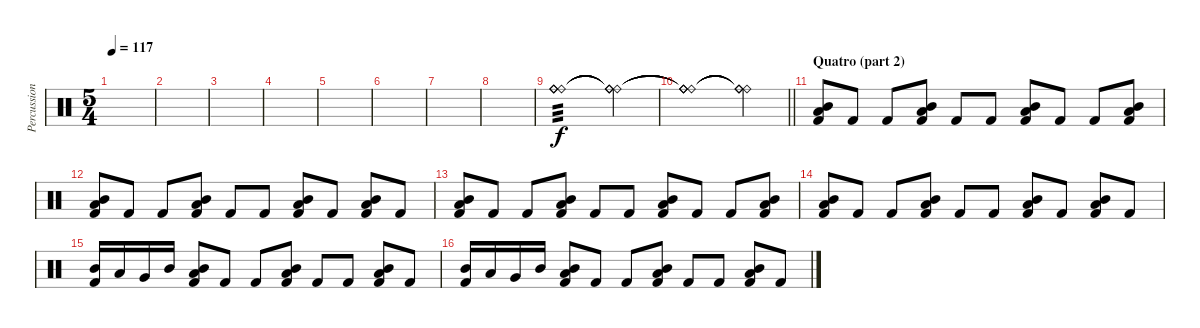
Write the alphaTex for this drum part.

\track ("Percussion" "Percussion") {instrument percussion}
\staff {score}
\articulation defaults
\ts (5 4)
\tempo 117
\clef neutral
\ks c
|
|
|
|
|
|
|
|
("Ride (bell)" "Ride (bell)" "Ride (bell)" "Ride (bell)").1{tp 3 volume 7} ("Ride (bell)"{t} "Ride (bell)"{t} "Ride (bell)"{t} "Ride (bell)"{t}).4{volume 13} |
\barLineRight lightlight
("Ride (bell)"{t} "Ride (bell)"{t} "Ride (bell)"{t} "Ride (bell)"{t}).1 ("Ride (bell)"{t} "Ride (bell)"{t} "Ride (bell)"{t} "Ride (bell)"{t}).4 |
\section ("" "Quatro (part 2)")
("Low Tom (hit)" "Mid Tom (hit)" "Kick (hit) 2").8{volume 14} "Kick (hit) 2".8 "Kick (hit) 2".8 ("Low Tom (hit)" "Mid Tom (hit)" "Kick (hit) 2").8 "Kick (hit) 2".8 "Kick (hit) 2".8 ("Low Tom (hit)" "Mid Tom (hit)" "Kick (hit) 2").8 "Kick (hit) 2".8 "Kick (hit) 2".8 ("Low Tom (hit)" "Mid Tom (hit)" "Kick (hit) 2").8 |
("Low Tom (hit)" "Mid Tom (hit)" "Kick (hit) 2").8 "Kick (hit) 2".8 "Kick (hit) 2".8 ("Mid Tom (hit)" "Low Tom (hit)" "Kick (hit) 2").8 "Kick (hit) 2".8 "Kick (hit) 2".8 ("Mid Tom (hit)" "Low Tom (hit)" "Kick (hit) 2").8 "Kick (hit) 2".8 ("Mid Tom (hit)" "Low Tom (hit)" "Kick (hit) 2").8 "Kick (hit) 2".8 |
("Low Tom (hit)" "Mid Tom (hit)" "Kick (hit) 2").8 "Kick (hit) 2".8 "Kick (hit) 2".8 ("Low Tom (hit)" "Mid Tom (hit)" "Kick (hit) 2").8 "Kick (hit) 2".8 "Kick (hit) 2".8 ("Low Tom (hit)" "Mid Tom (hit)" "Kick (hit) 2").8 "Kick (hit) 2".8 "Kick (hit) 2".8 ("Low Tom (hit)" "Mid Tom (hit)" "Kick (hit) 2").8 |
("Low Tom (hit)" "Mid Tom (hit)" "Kick (hit) 2").8 "Kick (hit) 2".8 "Kick (hit) 2".8 ("Mid Tom (hit)" "Low Tom (hit)" "Kick (hit) 2").8 "Kick (hit) 2".8 "Kick (hit) 2".8 ("Mid Tom (hit)" "Low Tom (hit)" "Kick (hit) 2").8 "Kick (hit) 2".8 ("Mid Tom (hit)" "Low Tom (hit)" "Kick (hit) 2").8 "Kick (hit) 2".8 |
("Mid Tom (hit)" "Kick (hit) 2").16 "Low Tom (hit)".16 "Very Low Tom (hit)".16 "Mid Tom (hit)".16 ("Low Tom (hit)" "Mid Tom (hit)" "Kick (hit) 2").8 "Kick (hit) 2".8 "Kick (hit) 2".8 ("Low Tom (hit)" "Mid Tom (hit)" "Kick (hit) 2").8 "Kick (hit) 2".8 "Kick (hit) 2".8 ("Low Tom (hit)" "Mid Tom (hit)" "Kick (hit) 2").8 "Kick (hit) 2".8 |
("Mid Tom (hit)" "Kick (hit) 2").16 "Low Tom (hit)".16 "Very Low Tom (hit)".16 "Mid Tom (hit)".16 ("Low Tom (hit)" "Mid Tom (hit)" "Kick (hit) 2").8 "Kick (hit) 2".8 "Kick (hit) 2".8 ("Low Tom (hit)" "Mid Tom (hit)" "Kick (hit) 2").8 "Kick (hit) 2".8 "Kick (hit) 2".8 ("Low Tom (hit)" "Mid Tom (hit)" "Kick (hit) 2").8 "Kick (hit) 2".8
